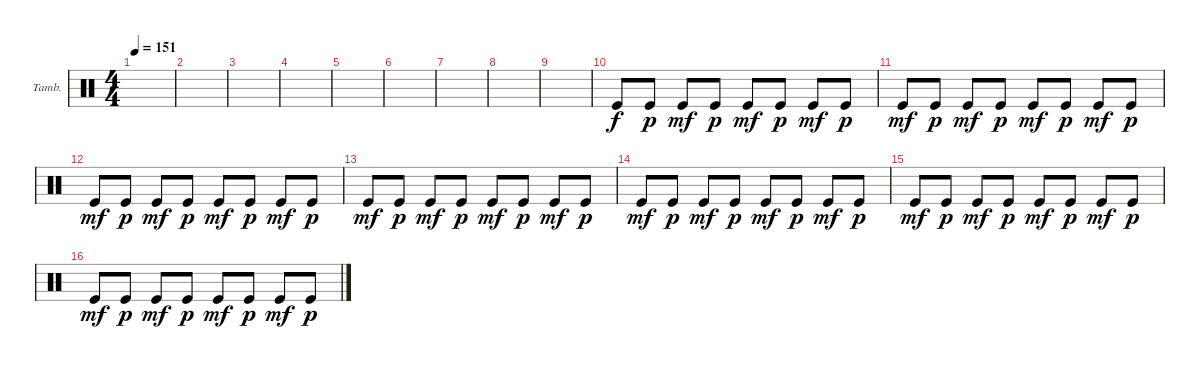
\defaultSystemsLayout 4
\bracketExtendMode groupsimilarinstruments
\firstSystemTrackNameOrientation horizontal
\otherSystemsTrackNameOrientation horizontal
\track ("Helders" "Tamb.") {instrument percussion}
\staff {score}
\articulation defaults
\ts (4 4)
\tempo 151
\clef neutral
\scale
0.333333
\ks c
|
\scale
0.333333 |
\scale
0.333333 |
\scale
0.333333 |
\scale
0.333333 |
\scale
0.333333 |
\scale
0.333333 |
\scale
0.333333 |
\scale
0.333333 |
\scale
0.333333 "Kick (hit)".8 "Kick (hit)".8{dy p} "Kick (hit)".8{dy mf} "Kick (hit)".8{dy p} "Kick (hit)".8{dy mf} "Kick (hit)".8{dy p} "Kick (hit)".8{dy mf} "Kick (hit)".8{dy p} |
\scale
0.333333 "Kick (hit)".8{dy mf} "Kick (hit)".8{dy p} "Kick (hit)".8{dy mf} "Kick (hit)".8{dy p} "Kick (hit)".8{dy mf} "Kick (hit)".8{dy p} "Kick (hit)".8{dy mf} "Kick (hit)".8{dy p} |
\scale
0.333333 "Kick (hit)".8{dy mf} "Kick (hit)".8{dy p} "Kick (hit)".8{dy mf} "Kick (hit)".8{dy p} "Kick (hit)".8{dy mf} "Kick (hit)".8{dy p} "Kick (hit)".8{dy mf} "Kick (hit)".8{dy p} |
\scale
0.333333 "Kick (hit)".8{dy mf} "Kick (hit)".8{dy p} "Kick (hit)".8{dy mf} "Kick (hit)".8{dy p} "Kick (hit)".8{dy mf} "Kick (hit)".8{dy p} "Kick (hit)".8{dy mf} "Kick (hit)".8{dy p} |
\scale
0.333333 "Kick (hit)".8{dy mf} "Kick (hit)".8{dy p} "Kick (hit)".8{dy mf} "Kick (hit)".8{dy p} "Kick (hit)".8{dy mf} "Kick (hit)".8{dy p} "Kick (hit)".8{dy mf} "Kick (hit)".8{dy p} |
\scale
0.333333 "Kick (hit)".8{dy mf} "Kick (hit)".8{dy p} "Kick (hit)".8{dy mf} "Kick (hit)".8{dy p} "Kick (hit)".8{dy mf} "Kick (hit)".8{dy p} "Kick (hit)".8{dy mf} "Kick (hit)".8{dy p} |
\scale
0.333333 "Kick (hit)".8{dy mf} "Kick (hit)".8{dy p} "Kick (hit)".8{dy mf} "Kick (hit)".8{dy p} "Kick (hit)".8{dy mf} "Kick (hit)".8{dy p} "Kick (hit)".8{dy mf} "Kick (hit)".8{dy p}
